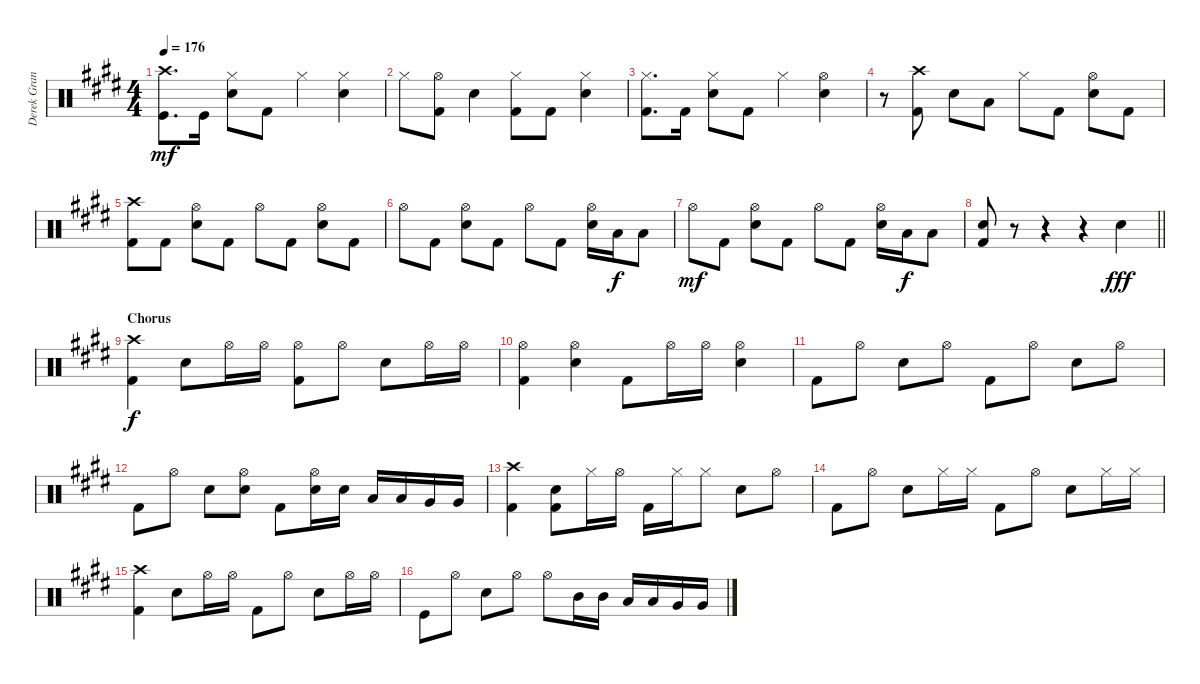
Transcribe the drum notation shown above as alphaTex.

\track ("Derek Grant - Drums" "Derek Gran") {instrument percussion}
\staff {score}
\articulation defaults
\ts (4 4)
\tempo 176
\clef neutral
\ks e
("Crash high (hit)" "Kick (hit)").8{d dy mf} "Kick (hit)".16 ("Snare (hit) 2" "Hi-Hat (closed)").8 "Kick (hit) 2".8 "Hi-Hat (closed)".4 ("Snare (hit) 2" "Hi-Hat (closed)").4 |
"Hi-Hat (closed)".8 ("Kick (hit) 2" "Hi-Hat (open)").8 "Snare (hit) 2".4 ("Kick (hit) 2" "Hi-Hat (closed)").8 "Kick (hit) 2".8 ("Snare (hit) 2" "Hi-Hat (closed)").4 |
("Kick (hit) 2" "Hi-Hat (closed)").8{d} "Kick (hit) 2".16 ("Snare (hit) 2" "Hi-Hat (closed)").8 "Kick (hit) 2".8 "Hi-Hat (closed)".4 ("Snare (hit) 2" "Hi-Hat (open)").4 |
r.8 ("Kick (hit) 2" "Crash high (hit)").8 "Snare (hit) 2".8 "Low Tom (hit)".8 "Hi-Hat (closed)".8 "Kick (hit) 2".8 ("Snare (hit) 2" "Hi-Hat (open)").8 "Kick (hit) 2".8 |
("Kick (hit) 2" "Crash high (hit)").8 "Kick (hit) 2".8 ("Snare (hit) 2" "Hi-Hat (open)").8 "Kick (hit) 2".8 "Hi-Hat (open)".8 "Kick (hit) 2".8 ("Snare (hit) 2" "Hi-Hat (open)").8 "Kick (hit) 2".8 |
"Hi-Hat (open)".8 "Kick (hit) 2".8 ("Snare (hit) 2" "Hi-Hat (open)").8 "Kick (hit) 2".8 "Hi-Hat (open)".8 "Kick (hit) 2".8 ("Snare (hit) 2" "Hi-Hat (open)").16 "Low Tom (hit)".16{dy f} "Low Floor Tom (hit)".8 |
"Hi-Hat (open)".8{dy mf} "Kick (hit) 2".8 ("Snare (hit) 2" "Hi-Hat (open)").8 "Kick (hit) 2".8 "Hi-Hat (open)".8 "Kick (hit) 2".8 ("Snare (hit) 2" "Hi-Hat (open)").16 "Low Tom (hit)".16{dy f} "Low Floor Tom (hit)".8 |
\barLineRight lightlight
("Kick (hit) 2" "Snare (hit) 2").8 r.8 r.4 r.4 "Snare (hit) 2".4{dy fff} |
\section ("" "Chorus")
("Crash high (hit)" "Kick (hit) 2").4{dy f} "Snare (hit) 2".8 "Hi-Hat (open)".16 "Hi-Hat (open)".16 ("Kick (hit) 2" "Hi-Hat (open)").8 "Hi-Hat (open)".8 "Snare (hit) 2".8 "Hi-Hat (open)".16 "Hi-Hat (open)".16 |
("Kick (hit) 2" "Hi-Hat (open)").4 ("Snare (hit) 2" "Hi-Hat (open)").4 "Kick (hit) 2".8 "Hi-Hat (open)".16 "Hi-Hat (open)".16 ("Snare (hit) 2" "Hi-Hat (open)").4 |
"Kick (hit) 2".8 "Hi-Hat (open)".8 "Snare (hit) 2".8 "Hi-Hat (open)".8 "Kick (hit) 2".8 "Hi-Hat (open)".8 "Snare (hit) 2".8 "Hi-Hat (open)".8 |
"Kick (hit) 2".8 "Hi-Hat (open)".8 "Snare (hit) 2".8 ("Hi-Hat (open)" "Snare (hit) 2").8 "Kick (hit) 2".8 ("Snare (hit) 2" "Hi-Hat (open)").16 "Snare (hit) 2".16 "Low Tom (hit)".16 "Low Tom (hit)".16 "Very Low Tom (hit)".16 "Very Low Tom (hit)".16 |
("Kick (hit) 2" "Crash high (hit)").4 ("Kick (hit) 2" "Snare (hit) 2").8 "Hi-Hat (closed)".16 "Hi-Hat (open)".16 "Kick (hit) 2".16 "Hi-Hat (closed)".16 "Hi-Hat (closed)".8 "Snare (hit) 2".8 "Hi-Hat (open)".8 |
"Kick (hit) 2".8 "Hi-Hat (open)".8 "Snare (hit) 2".8 "Hi-Hat (closed)".16 "Hi-Hat (closed)".16 "Kick (hit) 2".8 "Hi-Hat (open)".8 "Snare (hit) 2".8 "Hi-Hat (closed)".16 "Hi-Hat (closed)".16 |
("Kick (hit) 2" "Crash high (hit)").4 "Snare (hit) 2".8 "Hi-Hat (open)".16 "Hi-Hat (open)".16 "Kick (hit) 2".8 "Hi-Hat (open)".8 "Snare (hit) 2".8 "Hi-Hat (open)".16 "Hi-Hat (open)".16 |
"Kick (hit)".8 "Hi-Hat (open)".8 "Snare (hit) 2".8 "Hi-Hat (open)".8 "Hi-Hat (open)".8 "Mid Tom (hit)".16 "Mid Tom (hit)".16 "Low Tom (hit)".16 "Low Tom (hit)".16 "Very Low Tom (hit)".16 "Very Low Tom (hit)".16
